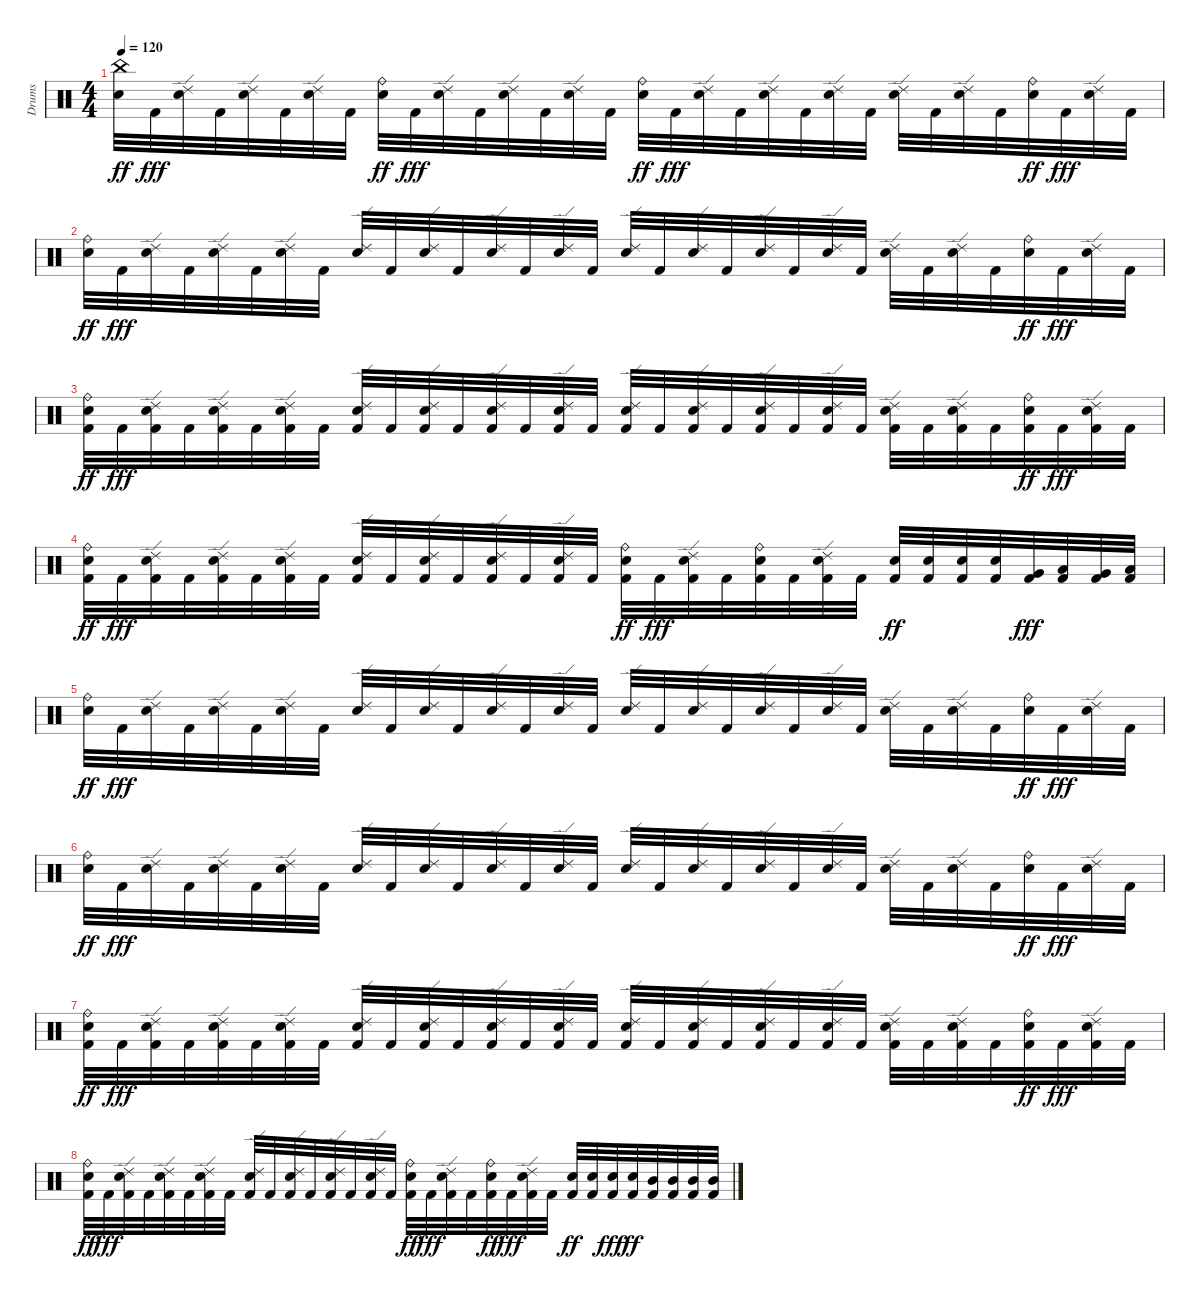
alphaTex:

\track ("Drums" "Drums") {instrument percussion}
\staff {score}
\articulation defaults
\ts (4 4)
\tempo 120
\clef neutral
\ks c
("Snare (hit) 2" "China (hit)").32{dy ff} "Kick (hit) 2".32{dy fff} ("Snare (hit) 2" "Ride (edge) 2").32 "Kick (hit) 2".32 ("Snare (hit) 2" "Ride (edge) 2").32 "Kick (hit) 2".32 ("Snare (hit) 2" "Ride (edge) 2").32 "Kick (hit) 2".32 ("Snare (hit) 2" "Ride (bell)").32{dy ff} "Kick (hit) 2".32{dy fff} ("Snare (hit) 2" "Ride (edge) 2").32 "Kick (hit) 2".32 ("Snare (hit) 2" "Ride (edge) 2").32 "Kick (hit) 2".32 ("Snare (hit) 2" "Ride (edge) 2").32 "Kick (hit) 2".32 ("Snare (hit) 2" "Ride (bell)").32{dy ff} "Kick (hit) 2".32{dy fff} ("Snare (hit) 2" "Ride (edge) 2").32 "Kick (hit) 2".32 ("Snare (hit) 2" "Ride (edge) 2").32 "Kick (hit) 2".32 ("Snare (hit) 2" "Ride (edge) 2").32 "Kick (hit) 2".32 ("Snare (hit) 2" "Ride (edge) 2").32 "Kick (hit) 2".32 ("Snare (hit) 2" "Ride (edge) 2").32 "Kick (hit) 2".32 ("Snare (hit) 2" "Ride (bell)").32{dy ff} "Kick (hit) 2".32{dy fff} ("Snare (hit) 2" "Ride (edge) 2").32 "Kick (hit) 2".32 |
("Snare (hit) 2" "Ride (bell)").32{dy ff} "Kick (hit) 2".32{dy fff} ("Snare (hit) 2" "Ride (edge) 2").32 "Kick (hit) 2".32 ("Snare (hit) 2" "Ride (edge) 2").32 "Kick (hit) 2".32 ("Snare (hit) 2" "Ride (edge) 2").32 "Kick (hit) 2".32 ("Snare (hit) 2" "Ride (edge) 2").32 "Kick (hit) 2".32 ("Snare (hit) 2" "Ride (edge) 2").32 "Kick (hit) 2".32 ("Snare (hit) 2" "Ride (edge) 2").32 "Kick (hit) 2".32 ("Snare (hit) 2" "Ride (edge) 2").32 "Kick (hit) 2".32 ("Snare (hit) 2" "Ride (edge) 2").32 "Kick (hit) 2".32 ("Snare (hit) 2" "Ride (edge) 2").32 "Kick (hit) 2".32 ("Snare (hit) 2" "Ride (edge) 2").32 "Kick (hit) 2".32 ("Snare (hit) 2" "Ride (edge) 2").32 "Kick (hit) 2".32 ("Snare (hit) 2" "Ride (edge) 2").32 "Kick (hit) 2".32 ("Snare (hit) 2" "Ride (edge) 2").32 "Kick (hit) 2".32 ("Snare (hit) 2" "Ride (bell)").32{dy ff} "Kick (hit) 2".32{dy fff} ("Snare (hit) 2" "Ride (edge) 2").32 "Kick (hit) 2".32 |
("Kick (hit) 2" "Snare (hit) 2" "Ride (bell)").32{dy ff} "Kick (hit) 2".32{dy fff} ("Kick (hit) 2" "Snare (hit) 2" "Ride (edge) 2").32 "Kick (hit) 2".32 ("Kick (hit) 2" "Snare (hit) 2" "Ride (edge) 2").32 "Kick (hit) 2".32 ("Kick (hit) 2" "Snare (hit) 2" "Ride (edge) 2").32 "Kick (hit) 2".32 ("Kick (hit) 2" "Snare (hit) 2" "Ride (edge) 2").32 "Kick (hit) 2".32 ("Kick (hit) 2" "Snare (hit) 2" "Ride (edge) 2").32 "Kick (hit) 2".32 ("Kick (hit) 2" "Snare (hit) 2" "Ride (edge) 2").32 "Kick (hit) 2".32 ("Kick (hit) 2" "Snare (hit) 2" "Ride (edge) 2").32 "Kick (hit) 2".32 ("Kick (hit) 2" "Snare (hit) 2" "Ride (edge) 2").32 "Kick (hit) 2".32 ("Kick (hit) 2" "Snare (hit) 2" "Ride (edge) 2").32 "Kick (hit) 2".32 ("Kick (hit) 2" "Snare (hit) 2" "Ride (edge) 2").32 "Kick (hit) 2".32 ("Kick (hit) 2" "Snare (hit) 2" "Ride (edge) 2").32 "Kick (hit) 2".32 ("Kick (hit) 2" "Snare (hit) 2" "Ride (edge) 2").32 "Kick (hit) 2".32 ("Kick (hit) 2" "Snare (hit) 2" "Ride (edge) 2").32 "Kick (hit) 2".32 ("Kick (hit) 2" "Snare (hit) 2" "Ride (bell)").32{dy ff} "Kick (hit) 2".32{dy fff} ("Kick (hit) 2" "Snare (hit) 2" "Ride (edge) 2").32 "Kick (hit) 2".32 |
("Kick (hit) 2" "Snare (hit) 2" "Ride (bell)").32{dy ff} "Kick (hit) 2".32{dy fff} ("Kick (hit) 2" "Snare (hit) 2" "Ride (edge) 2").32 "Kick (hit) 2".32 ("Kick (hit) 2" "Snare (hit) 2" "Ride (edge) 2").32 "Kick (hit) 2".32 ("Kick (hit) 2" "Snare (hit) 2" "Ride (edge) 2").32 "Kick (hit) 2".32 ("Kick (hit) 2" "Snare (hit) 2" "Ride (edge) 2").32 "Kick (hit) 2".32 ("Kick (hit) 2" "Snare (hit) 2" "Ride (edge) 2").32 "Kick (hit) 2".32 ("Kick (hit) 2" "Snare (hit) 2" "Ride (edge) 2").32 "Kick (hit) 2".32 ("Kick (hit) 2" "Snare (hit) 2" "Ride (edge) 2").32 "Kick (hit) 2".32 ("Kick (hit) 2" "Snare (hit) 2" "Ride (bell)").32{dy ff} "Kick (hit) 2".32{dy fff} ("Kick (hit) 2" "Snare (hit) 2" "Ride (edge) 2").32 "Kick (hit) 2".32 ("Kick (hit) 2" "Snare (hit) 2" "Ride (bell)").32 "Kick (hit) 2".32 ("Kick (hit) 2" "Snare (hit) 2" "Ride (edge) 2").32 "Kick (hit) 2".32 ("Kick (hit) 2" "Snare (hit) 2").32{dy ff} ("Kick (hit) 2" "Snare (hit) 2").32 ("Kick (hit) 2" "Snare (hit) 2").32 ("Kick (hit) 2" "Snare (hit) 2").32 ("Kick (hit) 2" "Very Low Tom (hit)").32{dy fff} ("Kick (hit) 2" "Low Floor Tom (hit)").32 ("Kick (hit) 2" "Very Low Tom (hit)").32 ("Kick (hit) 2" "Low Floor Tom (hit)").32 |
("Snare (hit) 2" "Ride (bell)").32{dy ff} "Kick (hit) 2".32{dy fff} ("Snare (hit) 2" "Ride (edge) 2").32 "Kick (hit) 2".32 ("Snare (hit) 2" "Ride (edge) 2").32 "Kick (hit) 2".32 ("Snare (hit) 2" "Ride (edge) 2").32 "Kick (hit) 2".32 ("Snare (hit) 2" "Ride (edge) 2").32 "Kick (hit) 2".32 ("Snare (hit) 2" "Ride (edge) 2").32 "Kick (hit) 2".32 ("Snare (hit) 2" "Ride (edge) 2").32 "Kick (hit) 2".32 ("Snare (hit) 2" "Ride (edge) 2").32 "Kick (hit) 2".32 ("Snare (hit) 2" "Ride (edge) 2").32 "Kick (hit) 2".32 ("Snare (hit) 2" "Ride (edge) 2").32 "Kick (hit) 2".32 ("Snare (hit) 2" "Ride (edge) 2").32 "Kick (hit) 2".32 ("Snare (hit) 2" "Ride (edge) 2").32 "Kick (hit) 2".32 ("Snare (hit) 2" "Ride (edge) 2").32 "Kick (hit) 2".32 ("Snare (hit) 2" "Ride (edge) 2").32 "Kick (hit) 2".32 ("Snare (hit) 2" "Ride (bell)").32{dy ff} "Kick (hit) 2".32{dy fff} ("Snare (hit) 2" "Ride (edge) 2").32 "Kick (hit) 2".32 |
("Snare (hit) 2" "Ride (bell)").32{dy ff} "Kick (hit) 2".32{dy fff} ("Snare (hit) 2" "Ride (edge) 2").32 "Kick (hit) 2".32 ("Snare (hit) 2" "Ride (edge) 2").32 "Kick (hit) 2".32 ("Snare (hit) 2" "Ride (edge) 2").32 "Kick (hit) 2".32 ("Snare (hit) 2" "Ride (edge) 2").32 "Kick (hit) 2".32 ("Snare (hit) 2" "Ride (edge) 2").32 "Kick (hit) 2".32 ("Snare (hit) 2" "Ride (edge) 2").32 "Kick (hit) 2".32 ("Snare (hit) 2" "Ride (edge) 2").32 "Kick (hit) 2".32 ("Snare (hit) 2" "Ride (edge) 2").32 "Kick (hit) 2".32 ("Snare (hit) 2" "Ride (edge) 2").32 "Kick (hit) 2".32 ("Snare (hit) 2" "Ride (edge) 2").32 "Kick (hit) 2".32 ("Snare (hit) 2" "Ride (edge) 2").32 "Kick (hit) 2".32 ("Snare (hit) 2" "Ride (edge) 2").32 "Kick (hit) 2".32 ("Snare (hit) 2" "Ride (edge) 2").32 "Kick (hit) 2".32 ("Snare (hit) 2" "Ride (bell)").32{dy ff} "Kick (hit) 2".32{dy fff} ("Snare (hit) 2" "Ride (edge) 2").32 "Kick (hit) 2".32 |
("Kick (hit) 2" "Snare (hit) 2" "Ride (bell)").32{dy ff} "Kick (hit) 2".32{dy fff} ("Kick (hit) 2" "Snare (hit) 2" "Ride (edge) 2").32 "Kick (hit) 2".32 ("Kick (hit) 2" "Snare (hit) 2" "Ride (edge) 2").32 "Kick (hit) 2".32 ("Kick (hit) 2" "Snare (hit) 2" "Ride (edge) 2").32 "Kick (hit) 2".32 ("Kick (hit) 2" "Snare (hit) 2" "Ride (edge) 2").32 "Kick (hit) 2".32 ("Kick (hit) 2" "Snare (hit) 2" "Ride (edge) 2").32 "Kick (hit) 2".32 ("Kick (hit) 2" "Snare (hit) 2" "Ride (edge) 2").32 "Kick (hit) 2".32 ("Kick (hit) 2" "Snare (hit) 2" "Ride (edge) 2").32 "Kick (hit) 2".32 ("Kick (hit) 2" "Snare (hit) 2" "Ride (edge) 2").32 "Kick (hit) 2".32 ("Kick (hit) 2" "Snare (hit) 2" "Ride (edge) 2").32 "Kick (hit) 2".32 ("Kick (hit) 2" "Snare (hit) 2" "Ride (edge) 2").32 "Kick (hit) 2".32 ("Kick (hit) 2" "Snare (hit) 2" "Ride (edge) 2").32 "Kick (hit) 2".32 ("Kick (hit) 2" "Snare (hit) 2" "Ride (edge) 2").32 "Kick (hit) 2".32 ("Kick (hit) 2" "Snare (hit) 2" "Ride (edge) 2").32 "Kick (hit) 2".32 ("Kick (hit) 2" "Snare (hit) 2" "Ride (bell)").32{dy ff} "Kick (hit) 2".32{dy fff} ("Kick (hit) 2" "Snare (hit) 2" "Ride (edge) 2").32 "Kick (hit) 2".32 |
("Kick (hit) 2" "Snare (hit) 2" "Ride (bell)").32{dy ff} "Kick (hit) 2".32{dy fff} ("Kick (hit) 2" "Snare (hit) 2" "Ride (edge) 2").32 "Kick (hit) 2".32 ("Kick (hit) 2" "Snare (hit) 2" "Ride (edge) 2").32 "Kick (hit) 2".32 ("Kick (hit) 2" "Snare (hit) 2" "Ride (edge) 2").32 "Kick (hit) 2".32 ("Kick (hit) 2" "Snare (hit) 2" "Ride (edge) 2").32 "Kick (hit) 2".32 ("Kick (hit) 2" "Snare (hit) 2" "Ride (edge) 2").32 "Kick (hit) 2".32 ("Kick (hit) 2" "Snare (hit) 2" "Ride (edge) 2").32 "Kick (hit) 2".32 ("Kick (hit) 2" "Snare (hit) 2" "Ride (edge) 2").32 "Kick (hit) 2".32 ("Kick (hit) 2" "Snare (hit) 2" "Ride (bell)").32{dy ff} "Kick (hit) 2".32{dy fff} ("Kick (hit) 2" "Snare (hit) 2" "Ride (edge) 2").32 "Kick (hit) 2".32 ("Kick (hit) 2" "Snare (hit) 2" "Ride (bell)").32{dy ff} "Kick (hit) 2".32{dy fff} ("Kick (hit) 2" "Snare (hit) 2" "Ride (edge) 2").32 "Kick (hit) 2".32 ("Kick (hit) 2" "Snare (hit) 2").32{dy ff} ("Kick (hit) 2" "Snare (hit) 2").32 ("Snare (hit) 2" "Kick (hit) 2").32{dy fff} ("Kick (hit) 2" "Snare (hit) 2").32{dy ff} ("Kick (hit) 2" "Mid Tom (hit)").32 ("Kick (hit) 2" "Mid Tom (hit)").32 ("Kick (hit) 2" "Mid Tom (hit)").32 ("Kick (hit) 2" "Mid Tom (hit)").32
